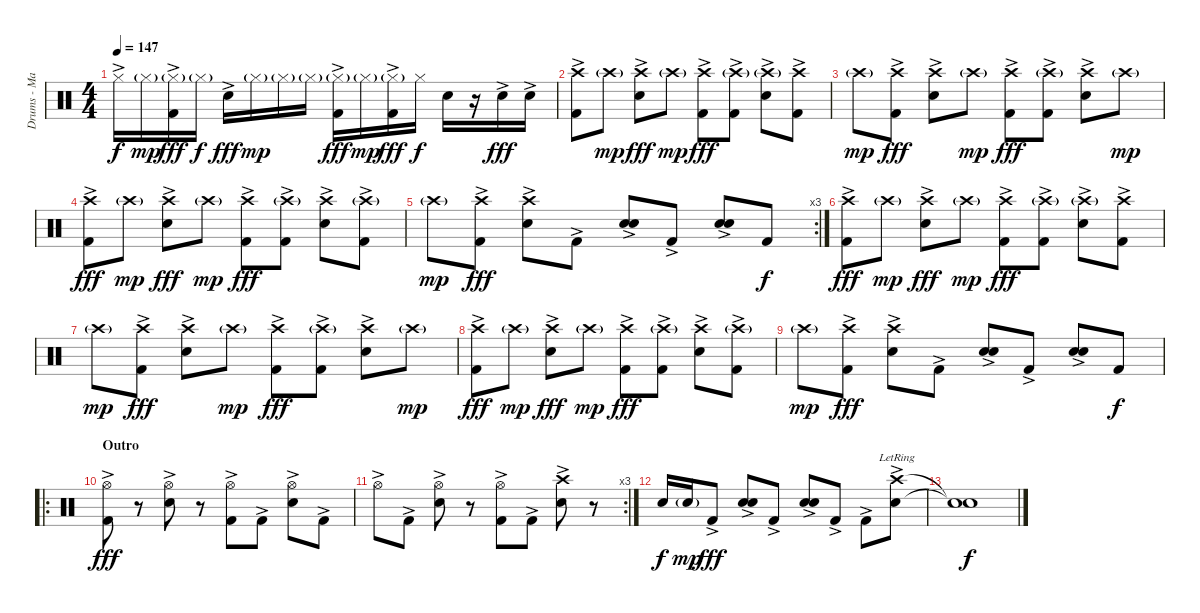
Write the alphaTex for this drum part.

\track ("Drums - Manu" "Drums - Ma") {instrument percussion}
\staff {score}
\articulation defaults
\ts (4 4)
\tempo 147
\clef neutral
\ks c "Hi-Hat (closed)"{ac}.16{dy f} "Hi-Hat (closed)"{g}.16{dy mp}
("Hi-Hat (closed)"{g} "Kick (hit) 2"{ac}).16{dy fff} "Hi-Hat (closed)"{g}.16{dy f} "Snare (hit) 2"{ac}.16{dy fff} "Hi-Hat (closed)"{g}.16{dy mp} "Hi-Hat (closed)"{g}.16 "Hi-Hat (closed)"{g}.16 ("Hi-Hat (closed)"{g} "Kick (hit) 2"{ac}).16{dy fff} "Hi-Hat (closed)"{g}.16{dy mp} ("Hi-Hat (closed)"{g} "Kick (hit) 2"{ac}).16{dy fff} "Hi-Hat (closed)".16{dy f} "Snare (hit) 2".16 r.16 "Snare (hit) 2"{ac}.16{dy fff} "Snare (hit) 2"{ac}.16 |
("Crash high (hit)" "Kick (hit) 2"{ac}).8 "Crash high (hit)"{g}.8{dy mp} ("Crash high (hit)" "Snare (hit) 2"{ac}).8{dy fff} "Crash high (hit)"{g}.8{dy mp} ("Crash high (hit)" "Kick (hit) 2"{ac}).8{dy fff} ("Crash high (hit)"{g} "Kick (hit) 2"{ac}).8 ("Crash high (hit)"{g} "Snare (hit) 2"{ac}).8 ("Crash high (hit)" "Kick (hit) 2"{ac}).8 |
"Crash high (hit)"{g}.8{dy mp} ("Crash high (hit)" "Kick (hit) 2"{ac}).8{dy fff} ("Crash high (hit)" "Snare (hit) 2"{ac}).8 "Crash high (hit)"{g}.8{dy mp} ("Crash high (hit)" "Kick (hit) 2"{ac}).8{dy fff} ("Crash high (hit)"{g} "Kick (hit) 2"{ac}).8 ("Crash high (hit)" "Snare (hit) 2"{ac}).8 "Crash high (hit)"{g}.8{dy mp} |
("Crash high (hit)" "Kick (hit) 2"{ac}).8{dy fff} "Crash high (hit)"{g}.8{dy mp} ("Crash high (hit)" "Snare (hit) 2"{ac}).8{dy fff} "Crash high (hit)"{g}.8{dy mp} ("Crash high (hit)" "Kick (hit) 2"{ac}).8{dy fff} ("Crash high (hit)"{g} "Kick (hit) 2"{ac}).8 ("Crash high (hit)" "Snare (hit) 2"{ac}).8 ("Crash high (hit)"{g} "Kick (hit) 2"{ac}).8 |
\rc 3 "Crash high (hit)"{g}.8{dy mp}
("Crash high (hit)" "Kick (hit) 2"{ac}).8{dy fff} ("Crash high (hit)" "Snare (hit) 2"{ac}).8 "Kick (hit) 2"{ac}.8 ("Snare (hit) 2" "Snare (hit) 2"{ac}).8 "Kick (hit) 2"{ac}.8 ("Snare (hit) 2"{ac} "Snare (hit) 2"{ac}).8 "Kick (hit) 2".8{dy f} |
("Crash high (hit)" "Kick (hit) 2"{ac}).8{dy fff} "Crash high (hit)"{g}.8{dy mp} ("Crash high (hit)" "Snare (hit) 2"{ac}).8{dy fff} "Crash high (hit)"{g}.8{dy mp} ("Crash high (hit)" "Kick (hit) 2"{ac}).8{dy fff} ("Crash high (hit)"{g} "Kick (hit) 2"{ac}).8 ("Crash high (hit)"{g} "Snare (hit) 2"{ac}).8 ("Crash high (hit)" "Kick (hit) 2"{ac}).8 |
"Crash high (hit)"{g}.8{dy mp} ("Crash high (hit)" "Kick (hit) 2"{ac}).8{dy fff} ("Crash high (hit)" "Snare (hit) 2"{ac}).8 "Crash high (hit)"{g}.8{dy mp} ("Crash high (hit)" "Kick (hit) 2"{ac}).8{dy fff} ("Crash high (hit)"{g} "Kick (hit) 2"{ac}).8 ("Crash high (hit)" "Snare (hit) 2"{ac}).8 "Crash high (hit)"{g}.8{dy mp} |
("Crash high (hit)" "Kick (hit) 2"{ac}).8{dy fff} "Crash high (hit)"{g}.8{dy mp} ("Crash high (hit)" "Snare (hit) 2"{ac}).8{dy fff} "Crash high (hit)"{g}.8{dy mp} ("Crash high (hit)" "Kick (hit) 2"{ac}).8{dy fff} ("Crash high (hit)"{g} "Kick (hit) 2"{ac}).8 ("Crash high (hit)" "Snare (hit) 2"{ac}).8 ("Crash high (hit)"{g} "Kick (hit) 2"{ac}).8 |
"Crash high (hit)"{g}.8{dy mp} ("Crash high (hit)" "Kick (hit) 2"{ac}).8{dy fff} ("Crash high (hit)" "Snare (hit) 2"{ac}).8 "Kick (hit) 2"{ac}.8 ("Snare (hit) 2" "Snare (hit) 2"{ac}).8 "Kick (hit) 2"{ac}.8 ("Snare (hit) 2"{ac} "Snare (hit) 2"{ac}).8 "Kick (hit) 2".8{dy f} |
\ro
\section ("" "Outro")
("Hi-Hat (open)"{ac} "Kick (hit) 2"{ac}).8{dy fff} r.8 ("Hi-Hat (open)"{ac} "Snare (hit) 2"{ac}).8 r.8 ("Hi-Hat (open)"{ac} "Kick (hit) 2"{ac}).8 "Kick (hit) 2"{ac}.8 ("Hi-Hat (open)" "Snare (hit) 2"{ac}).8 "Kick (hit) 2"{ac}.8 |
\rc 3 "Hi-Hat (open)"{ac}.8 "Kick (hit) 2"{ac}.8
("Hi-Hat (open)"{ac} "Snare (hit) 2"{ac}).8 r.8 ("Hi-Hat (open)" "Kick (hit) 2"{ac}).8 "Kick (hit) 2"{ac}.8 ("Crash high (hit)" "Snare (hit) 2"{ac}).8 r.8 |
"Snare (hit) 2".16{dy f} "Snare (hit) 2"{g}.16{dy mp} "Kick (hit) 2"{ac}.8{dy fff} ("Snare (hit) 2"{ac} "Snare (hit) 2"{ac}).8 "Kick (hit) 2"{ac}.8 ("Snare (hit) 2"{ac} "Snare (hit) 2"{ac}).8 "Kick (hit) 2"{ac}.8 "Kick (hit) 2"{ac}.8 ("Crash high (hit)"{ac lr} "Snare (hit) 2"{ac}).8 |
("Snare (hit)"{t} "Snare (hit)"{t}).1{dy f}
